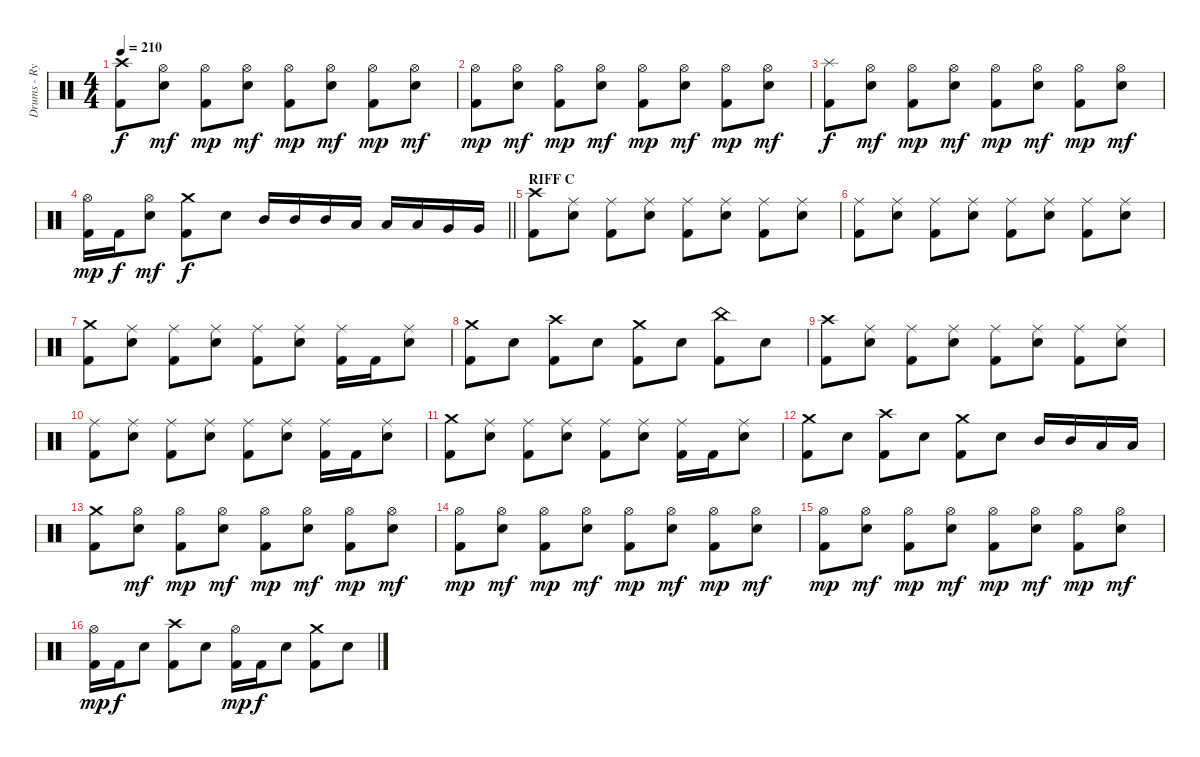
\track ("Drums - Ryan Bates" "Drums - Ry") {instrument percussion}
\staff {score}
\articulation defaults
\ts (4 4)
\tempo 210
\clef neutral
\ks c
("Crash high (hit)" "Kick (hit) 2").8{dy f} ("Hi-Hat (open)" "Snare (hit) 2").8{dy mf} ("Hi-Hat (open)" "Kick (hit) 2").8{dy mp} ("Hi-Hat (open)" "Snare (hit) 2").8{dy mf} ("Hi-Hat (open)" "Kick (hit) 2").8{dy mp} ("Hi-Hat (open)" "Snare (hit) 2").8{dy mf} ("Hi-Hat (open)" "Kick (hit) 2").8{dy mp} ("Hi-Hat (open)" "Snare (hit) 2").8{dy mf} |
("Hi-Hat (open)" "Kick (hit) 2").8{dy mp} ("Hi-Hat (open)" "Snare (hit) 2").8{dy mf} ("Hi-Hat (open)" "Kick (hit) 2").8{dy mp} ("Hi-Hat (open)" "Snare (hit) 2").8{dy mf} ("Hi-Hat (open)" "Kick (hit) 2").8{dy mp} ("Hi-Hat (open)" "Snare (hit) 2").8{dy mf} ("Hi-Hat (open)" "Kick (hit) 2").8{dy mp} ("Hi-Hat (open)" "Snare (hit) 2").8{dy mf} |
("Splash (hit)" "Kick (hit) 2").8{dy f} ("Hi-Hat (open)" "Snare (hit) 2").8{dy mf} ("Hi-Hat (open)" "Kick (hit) 2").8{dy mp} ("Hi-Hat (open)" "Snare (hit) 2").8{dy mf} ("Hi-Hat (open)" "Kick (hit) 2").8{dy mp} ("Hi-Hat (open)" "Snare (hit) 2").8{dy mf} ("Hi-Hat (open)" "Kick (hit) 2").8{dy mp} ("Hi-Hat (open)" "Snare (hit) 2").8{dy mf} |
\barLineRight lightlight
("Hi-Hat (open)" "Kick (hit) 2").16{dy mp} "Kick (hit) 2".16{dy f} ("Hi-Hat (open)" "Snare (hit) 2").8{dy mf} ("Crash medium (hit)" "Kick (hit) 2").8{dy f} "Snare (hit) 2".8 "Mid Tom (hit)".16 "Mid Tom (hit)".16 "Mid Tom (hit)".16 "Low Tom (hit)".16 "Low Tom (hit)".16 "Low Tom (hit)".16 "Very Low Tom (hit)".16 "Very Low Tom (hit)".16 |
\section ("" "RIFF C")
("Crash high (hit)" "Kick (hit) 2").8 ("Ride (middle)" "Snare (hit) 2").8 ("Ride (middle)" "Kick (hit) 2").8 ("Ride (middle)" "Snare (hit) 2").8 ("Ride (middle)" "Kick (hit) 2").8 ("Ride (middle)" "Snare (hit) 2").8 ("Ride (middle)" "Kick (hit) 2").8 ("Ride (middle)" "Snare (hit) 2").8 |
("Ride (middle)" "Kick (hit) 2").8 ("Ride (middle)" "Snare (hit) 2").8 ("Ride (middle)" "Kick (hit) 2").8 ("Ride (middle)" "Snare (hit) 2").8 ("Ride (middle)" "Kick (hit) 2").8 ("Ride (middle)" "Snare (hit) 2").8 ("Ride (middle)" "Kick (hit) 2").8 ("Ride (middle)" "Snare (hit) 2").8 |
("Crash medium (hit)" "Kick (hit) 2").8 ("Ride (middle)" "Snare (hit) 2").8 ("Ride (middle)" "Kick (hit) 2").8 ("Ride (middle)" "Snare (hit) 2").8 ("Ride (middle)" "Kick (hit) 2").8 ("Ride (middle)" "Snare (hit) 2").8 ("Ride (middle)" "Kick (hit) 2").16 "Kick (hit) 2".16 ("Ride (middle)" "Snare (hit) 2").8 |
("Crash medium (hit)" "Kick (hit) 2").8 "Snare (hit) 2".8 ("Crash high (hit)" "Kick (hit) 2").8 "Snare (hit) 2".8 ("Crash medium (hit)" "Kick (hit) 2").8 "Snare (hit) 2".8 ("China (hit)" "Kick (hit) 2").8 "Snare (hit) 2".8 |
("Crash high (hit)" "Kick (hit) 2").8 ("Ride (middle)" "Snare (hit) 2").8 ("Ride (middle)" "Kick (hit) 2").8 ("Ride (middle)" "Snare (hit) 2").8 ("Ride (middle)" "Kick (hit) 2").8 ("Ride (middle)" "Snare (hit) 2").8 ("Ride (middle)" "Kick (hit) 2").8 ("Ride (middle)" "Snare (hit) 2").8 |
("Ride (middle)" "Kick (hit) 2").8 ("Ride (middle)" "Snare (hit) 2").8 ("Ride (middle)" "Kick (hit) 2").8 ("Ride (middle)" "Snare (hit) 2").8 ("Ride (middle)" "Kick (hit) 2").8 ("Ride (middle)" "Snare (hit) 2").8 ("Ride (middle)" "Kick (hit) 2").16 "Kick (hit) 2".16 ("Ride (middle)" "Snare (hit) 2").8 |
("Crash medium (hit)" "Kick (hit) 2").8 ("Ride (middle)" "Snare (hit) 2").8 ("Ride (middle)" "Kick (hit) 2").8 ("Ride (middle)" "Snare (hit) 2").8 ("Ride (middle)" "Kick (hit) 2").8 ("Ride (middle)" "Snare (hit) 2").8 ("Ride (middle)" "Kick (hit) 2").16 "Kick (hit) 2".16 ("Ride (middle)" "Snare (hit) 2").8 |
("Crash medium (hit)" "Kick (hit) 2").8 "Snare (hit) 2".8 ("Crash high (hit)" "Kick (hit) 2").8 "Snare (hit) 2".8 ("Crash medium (hit)" "Kick (hit) 2").8 "Snare (hit) 2".8 "Mid Tom (hit)".16 "Mid Tom (hit)".16 "Low Tom (hit)".16 "Low Tom (hit)".16 |
("Crash medium (hit)" "Kick (hit) 2").8 ("Hi-Hat (open)" "Snare (hit) 2").8{dy mf} ("Hi-Hat (open)" "Kick (hit) 2").8{dy mp} ("Hi-Hat (open)" "Snare (hit) 2").8{dy mf} ("Hi-Hat (open)" "Kick (hit) 2").8{dy mp} ("Hi-Hat (open)" "Snare (hit) 2").8{dy mf} ("Hi-Hat (open)" "Kick (hit) 2").8{dy mp} ("Hi-Hat (open)" "Snare (hit) 2").8{dy mf} |
("Hi-Hat (open)" "Kick (hit) 2").8{dy mp} ("Hi-Hat (open)" "Snare (hit) 2").8{dy mf} ("Hi-Hat (open)" "Kick (hit) 2").8{dy mp} ("Hi-Hat (open)" "Snare (hit) 2").8{dy mf} ("Hi-Hat (open)" "Kick (hit) 2").8{dy mp} ("Hi-Hat (open)" "Snare (hit) 2").8{dy mf} ("Hi-Hat (open)" "Kick (hit) 2").8{dy mp} ("Hi-Hat (open)" "Snare (hit) 2").8{dy mf} |
("Hi-Hat (open)" "Kick (hit) 2").8{dy mp} ("Hi-Hat (open)" "Snare (hit) 2").8{dy mf} ("Hi-Hat (open)" "Kick (hit) 2").8{dy mp} ("Hi-Hat (open)" "Snare (hit) 2").8{dy mf} ("Hi-Hat (open)" "Kick (hit) 2").8{dy mp} ("Hi-Hat (open)" "Snare (hit) 2").8{dy mf} ("Hi-Hat (open)" "Kick (hit) 2").8{dy mp} ("Hi-Hat (open)" "Snare (hit) 2").8{dy mf} |
("Hi-Hat (open)" "Kick (hit) 2").16{dy mp} "Kick (hit) 2".16{dy f} "Snare (hit) 2".8 ("Crash high (hit)" "Kick (hit) 2").8 "Snare (hit) 2".8 ("Hi-Hat (open)" "Kick (hit) 2").16{dy mp} "Kick (hit) 2".16{dy f} "Snare (hit) 2".8 ("Crash medium (hit)" "Kick (hit) 2").8 "Snare (hit) 2".8
